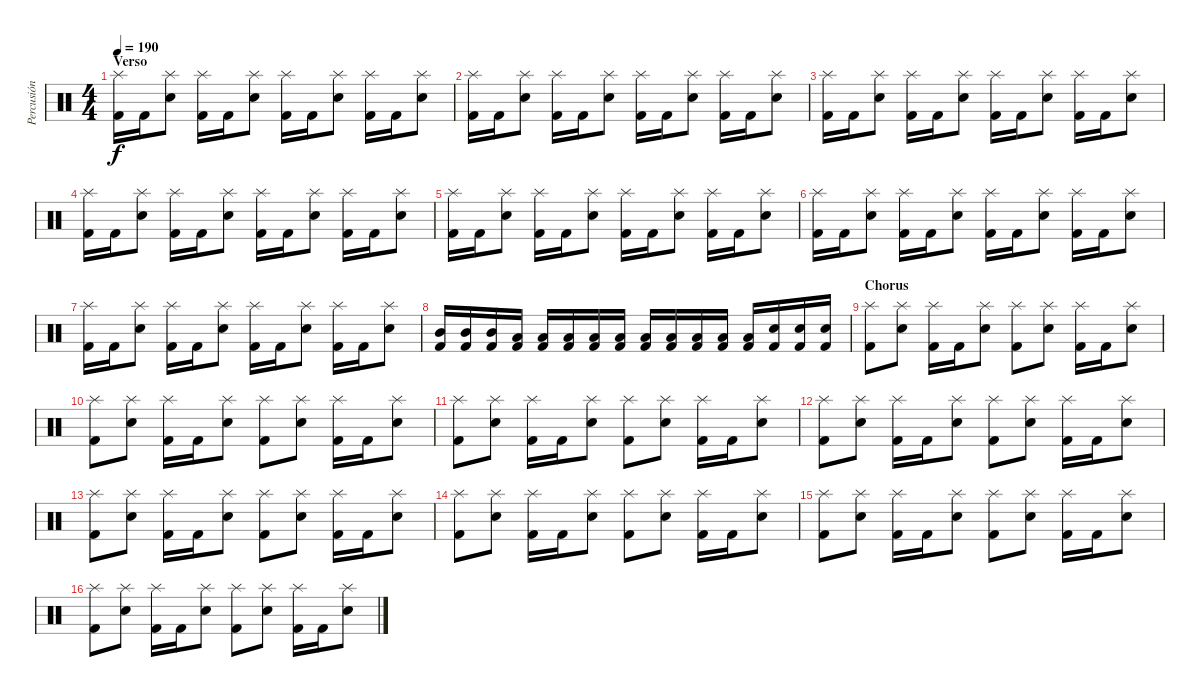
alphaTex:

\track ("Percusión" "Percusión") {instrument percussion}
\staff {score}
\articulation defaults
\ts (4 4)
\section ("" "Verso")
\tempo 190
\clef neutral
\ks c
("Splash (hit)" "Kick (hit) 2").16{dy f} "Kick (hit) 2".16 ("Splash (hit)" "Snare (hit) 2").8 ("Splash (hit)" "Kick (hit) 2").16 "Kick (hit) 2".16 ("Splash (hit)" "Snare (hit) 2").8 ("Splash (hit)" "Kick (hit) 2").16 "Kick (hit) 2".16 ("Splash (hit)" "Snare (hit) 2").8 ("Splash (hit)" "Kick (hit) 2").16 "Kick (hit) 2".16 ("Splash (hit)" "Snare (hit) 2").8 |
("Splash (hit)" "Kick (hit) 2").16 "Kick (hit) 2".16 ("Splash (hit)" "Snare (hit) 2").8 ("Splash (hit)" "Kick (hit) 2").16 "Kick (hit) 2".16 ("Splash (hit)" "Snare (hit) 2").8 ("Splash (hit)" "Kick (hit) 2").16 "Kick (hit) 2".16 ("Splash (hit)" "Snare (hit) 2").8 ("Splash (hit)" "Kick (hit) 2").16 "Kick (hit) 2".16 ("Splash (hit)" "Snare (hit) 2").8 |
("Splash (hit)" "Kick (hit) 2").16 "Kick (hit) 2".16 ("Splash (hit)" "Snare (hit) 2").8 ("Splash (hit)" "Kick (hit) 2").16 "Kick (hit) 2".16 ("Splash (hit)" "Snare (hit) 2").8 ("Splash (hit)" "Kick (hit) 2").16 "Kick (hit) 2".16 ("Splash (hit)" "Snare (hit) 2").8 ("Splash (hit)" "Kick (hit) 2").16 "Kick (hit) 2".16 ("Splash (hit)" "Snare (hit) 2").8 |
("Splash (hit)" "Kick (hit) 2").16 "Kick (hit) 2".16 ("Splash (hit)" "Snare (hit) 2").8 ("Splash (hit)" "Kick (hit) 2").16 "Kick (hit) 2".16 ("Splash (hit)" "Snare (hit) 2").8 ("Splash (hit)" "Kick (hit) 2").16 "Kick (hit) 2".16 ("Splash (hit)" "Snare (hit) 2").8 ("Splash (hit)" "Kick (hit) 2").16 "Kick (hit) 2".16 ("Splash (hit)" "Snare (hit) 2").8 |
("Splash (hit)" "Kick (hit) 2").16 "Kick (hit) 2".16 ("Splash (hit)" "Snare (hit) 2").8 ("Splash (hit)" "Kick (hit) 2").16 "Kick (hit) 2".16 ("Splash (hit)" "Snare (hit) 2").8 ("Splash (hit)" "Kick (hit) 2").16 "Kick (hit) 2".16 ("Splash (hit)" "Snare (hit) 2").8 ("Splash (hit)" "Kick (hit) 2").16 "Kick (hit) 2".16 ("Splash (hit)" "Snare (hit) 2").8 |
("Splash (hit)" "Kick (hit) 2").16 "Kick (hit) 2".16 ("Splash (hit)" "Snare (hit) 2").8 ("Splash (hit)" "Kick (hit) 2").16 "Kick (hit) 2".16 ("Splash (hit)" "Snare (hit) 2").8 ("Splash (hit)" "Kick (hit) 2").16 "Kick (hit) 2".16 ("Splash (hit)" "Snare (hit) 2").8 ("Splash (hit)" "Kick (hit) 2").16 "Kick (hit) 2".16 ("Splash (hit)" "Snare (hit) 2").8 |
("Splash (hit)" "Kick (hit) 2").16 "Kick (hit) 2".16 ("Splash (hit)" "Snare (hit) 2").8 ("Splash (hit)" "Kick (hit) 2").16 "Kick (hit) 2".16 ("Splash (hit)" "Snare (hit) 2").8 ("Splash (hit)" "Kick (hit) 2").16 "Kick (hit) 2".16 ("Splash (hit)" "Snare (hit) 2").8 ("Splash (hit)" "Kick (hit) 2").16 "Kick (hit) 2".16 ("Splash (hit)" "Snare (hit) 2").8 |
("Mid Tom (hit)" "Kick (hit) 2").16 ("Mid Tom (hit)" "Kick (hit) 2").16 ("Mid Tom (hit)" "Kick (hit) 2").16 ("Low Tom (hit)" "Kick (hit) 2").16 ("Low Tom (hit)" "Kick (hit) 2").16 ("Low Tom (hit)" "Kick (hit) 2").16 ("Low Floor Tom (hit)" "Kick (hit) 2").16 ("Low Floor Tom (hit)" "Kick (hit) 2").16 ("Low Floor Tom (hit)" "Kick (hit) 2").16 ("Low Tom (hit)" "Kick (hit) 2").16 ("Low Tom (hit)" "Kick (hit) 2").16 ("Low Tom (hit)" "Kick (hit) 2").16 ("Low Tom (hit)" "Kick (hit) 2").16 ("Snare (hit) 2" "Kick (hit) 2").16 ("Snare (hit) 2" "Kick (hit) 2").16 ("Snare (hit) 2" "Kick (hit) 2").16 |
\section ("" "Chorus")
("Splash (hit)" "Kick (hit) 2").8 ("Splash (hit)" "Snare (hit) 2").8 ("Splash (hit)" "Kick (hit) 2").16 "Kick (hit) 2".16 ("Splash (hit)" "Snare (hit) 2").8 ("Splash (hit)" "Kick (hit) 2").8 ("Splash (hit)" "Snare (hit) 2").8 ("Splash (hit)" "Kick (hit) 2").16 "Kick (hit) 2".16 ("Splash (hit)" "Snare (hit) 2").8 |
("Splash (hit)" "Kick (hit) 2").8 ("Splash (hit)" "Snare (hit) 2").8 ("Splash (hit)" "Kick (hit) 2").16 "Kick (hit) 2".16 ("Splash (hit)" "Snare (hit) 2").8 ("Splash (hit)" "Kick (hit) 2").8 ("Splash (hit)" "Snare (hit) 2").8 ("Splash (hit)" "Kick (hit) 2").16 "Kick (hit) 2".16 ("Splash (hit)" "Snare (hit) 2").8 |
("Splash (hit)" "Kick (hit) 2").8 ("Splash (hit)" "Snare (hit) 2").8 ("Splash (hit)" "Kick (hit) 2").16 "Kick (hit) 2".16 ("Splash (hit)" "Snare (hit) 2").8 ("Splash (hit)" "Kick (hit) 2").8 ("Splash (hit)" "Snare (hit) 2").8 ("Splash (hit)" "Kick (hit) 2").16 "Kick (hit) 2".16 ("Splash (hit)" "Snare (hit) 2").8 |
("Splash (hit)" "Kick (hit) 2").8 ("Splash (hit)" "Snare (hit) 2").8 ("Splash (hit)" "Kick (hit) 2").16 "Kick (hit) 2".16 ("Splash (hit)" "Snare (hit) 2").8 ("Splash (hit)" "Kick (hit) 2").8 ("Splash (hit)" "Snare (hit) 2").8 ("Splash (hit)" "Kick (hit) 2").16 "Kick (hit) 2".16 ("Splash (hit)" "Snare (hit) 2").8 |
("Splash (hit)" "Kick (hit) 2").8 ("Splash (hit)" "Snare (hit) 2").8 ("Splash (hit)" "Kick (hit) 2").16 "Kick (hit) 2".16 ("Splash (hit)" "Snare (hit) 2").8 ("Splash (hit)" "Kick (hit) 2").8 ("Splash (hit)" "Snare (hit) 2").8 ("Splash (hit)" "Kick (hit) 2").16 "Kick (hit) 2".16 ("Splash (hit)" "Snare (hit) 2").8 |
("Splash (hit)" "Kick (hit) 2").8 ("Splash (hit)" "Snare (hit) 2").8 ("Splash (hit)" "Kick (hit) 2").16 "Kick (hit) 2".16 ("Splash (hit)" "Snare (hit) 2").8 ("Splash (hit)" "Kick (hit) 2").8 ("Splash (hit)" "Snare (hit) 2").8 ("Splash (hit)" "Kick (hit) 2").16 "Kick (hit) 2".16 ("Splash (hit)" "Snare (hit) 2").8 |
("Splash (hit)" "Kick (hit) 2").8 ("Splash (hit)" "Snare (hit) 2").8 ("Splash (hit)" "Kick (hit) 2").16 "Kick (hit) 2".16 ("Splash (hit)" "Snare (hit) 2").8 ("Splash (hit)" "Kick (hit) 2").8 ("Splash (hit)" "Snare (hit) 2").8 ("Splash (hit)" "Kick (hit) 2").16 "Kick (hit) 2".16 ("Splash (hit)" "Snare (hit) 2").8 |
("Splash (hit)" "Kick (hit) 2").8 ("Splash (hit)" "Snare (hit) 2").8 ("Splash (hit)" "Kick (hit) 2").16 "Kick (hit) 2".16 ("Splash (hit)" "Snare (hit) 2").8 ("Splash (hit)" "Kick (hit) 2").8 ("Splash (hit)" "Snare (hit) 2").8 ("Splash (hit)" "Kick (hit) 2").16 "Kick (hit) 2".16 ("Splash (hit)" "Snare (hit) 2").8
